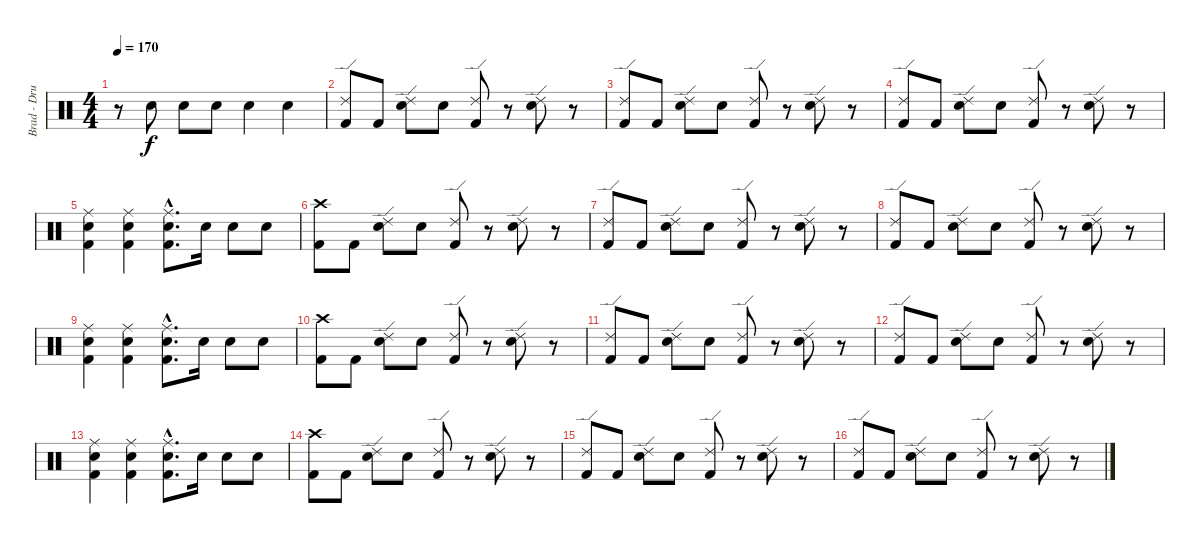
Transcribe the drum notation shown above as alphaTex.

\track ("Brad - Drums" "Brad - Dru") {instrument percussion}
\staff {score}
\articulation defaults
\ts (4 4)
\tempo 170
\clef neutral
\ks c
r.8{dy f} "Electric Snare (hit)".8 "Electric Snare (hit)".8 "Electric Snare (hit)".8 "Electric Snare (hit)".4 "Electric Snare (hit)".4 |
("Ride (edge) 2" "Kick (hit) 2").8 "Kick (hit) 2".8 ("Ride (edge) 2" "Electric Snare (hit)").8 "Electric Snare (hit)".8 ("Ride (edge) 2" "Kick (hit) 2").8 r.8 ("Ride (edge) 2" "Electric Snare (hit)").8 r.8 |
("Ride (edge) 2" "Kick (hit) 2").8 "Kick (hit) 2".8 ("Ride (edge) 2" "Electric Snare (hit)").8 "Electric Snare (hit)".8 ("Ride (edge) 2" "Kick (hit) 2").8 r.8 ("Ride (edge) 2" "Electric Snare (hit)").8 r.8 |
("Ride (edge) 2" "Kick (hit) 2").8 "Kick (hit) 2".8 ("Ride (edge) 2" "Electric Snare (hit)").8 "Electric Snare (hit)".8 ("Ride (edge) 2" "Kick (hit) 2").8 r.8 ("Ride (edge) 2" "Electric Snare (hit)").8 r.8 |
("Ride (middle)" "Electric Snare (hit)" "Kick (hit) 2").4 ("Ride (middle)" "Electric Snare (hit)" "Kick (hit) 2").4 ("Ride (middle)"{hac} "Electric Snare (hit)"{hac} "Kick (hit) 2"{hac}).8{d} "Electric Snare (hit)".16 "Electric Snare (hit)".8 "Electric Snare (hit)".8 |
("Crash high (hit)" "Kick (hit) 2").8 "Kick (hit) 2".8 ("Ride (edge) 2" "Electric Snare (hit)").8 "Electric Snare (hit)".8 ("Ride (edge) 2" "Kick (hit) 2").8 r.8 ("Ride (edge) 2" "Electric Snare (hit)").8 r.8 |
("Ride (edge) 2" "Kick (hit) 2").8 "Kick (hit) 2".8 ("Ride (edge) 2" "Electric Snare (hit)").8 "Electric Snare (hit)".8 ("Ride (edge) 2" "Kick (hit) 2").8 r.8 ("Ride (edge) 2" "Electric Snare (hit)").8 r.8 |
("Ride (edge) 2" "Kick (hit) 2").8 "Kick (hit) 2".8 ("Ride (edge) 2" "Electric Snare (hit)").8 "Electric Snare (hit)".8 ("Ride (edge) 2" "Kick (hit) 2").8 r.8 ("Ride (edge) 2" "Electric Snare (hit)").8 r.8 |
("Ride (middle)" "Electric Snare (hit)" "Kick (hit) 2").4 ("Ride (middle)" "Electric Snare (hit)" "Kick (hit) 2").4 ("Ride (middle)"{hac} "Electric Snare (hit)"{hac} "Kick (hit) 2"{hac}).8{d} "Electric Snare (hit)".16 "Electric Snare (hit)".8 "Electric Snare (hit)".8 |
("Crash high (hit)" "Kick (hit) 2").8 "Kick (hit) 2".8 ("Ride (edge) 2" "Electric Snare (hit)").8 "Electric Snare (hit)".8 ("Ride (edge) 2" "Kick (hit) 2").8 r.8 ("Ride (edge) 2" "Electric Snare (hit)").8 r.8 |
("Ride (edge) 2" "Kick (hit) 2").8 "Kick (hit) 2".8 ("Ride (edge) 2" "Electric Snare (hit)").8 "Electric Snare (hit)".8 ("Ride (edge) 2" "Kick (hit) 2").8 r.8 ("Ride (edge) 2" "Electric Snare (hit)").8 r.8 |
("Ride (edge) 2" "Kick (hit) 2").8 "Kick (hit) 2".8 ("Ride (edge) 2" "Electric Snare (hit)").8 "Electric Snare (hit)".8 ("Ride (edge) 2" "Kick (hit) 2").8 r.8 ("Ride (edge) 2" "Electric Snare (hit)").8 r.8 |
("Ride (middle)" "Electric Snare (hit)" "Kick (hit) 2").4 ("Ride (middle)" "Electric Snare (hit)" "Kick (hit) 2").4 ("Ride (middle)"{hac} "Electric Snare (hit)"{hac} "Kick (hit) 2"{hac}).8{d} "Electric Snare (hit)".16 "Electric Snare (hit)".8 "Electric Snare (hit)".8 |
("Crash high (hit)" "Kick (hit) 2").8 "Kick (hit) 2".8 ("Ride (edge) 2" "Electric Snare (hit)").8 "Electric Snare (hit)".8 ("Ride (edge) 2" "Kick (hit) 2").8 r.8 ("Ride (edge) 2" "Electric Snare (hit)").8 r.8 |
("Ride (edge) 2" "Kick (hit) 2").8 "Kick (hit) 2".8 ("Ride (edge) 2" "Electric Snare (hit)").8 "Electric Snare (hit)".8 ("Ride (edge) 2" "Kick (hit) 2").8 r.8 ("Ride (edge) 2" "Electric Snare (hit)").8 r.8 |
("Ride (edge) 2" "Kick (hit) 2").8 "Kick (hit) 2".8 ("Ride (edge) 2" "Electric Snare (hit)").8 "Electric Snare (hit)".8 ("Ride (edge) 2" "Kick (hit) 2").8 r.8 ("Ride (edge) 2" "Electric Snare (hit)").8 r.8
